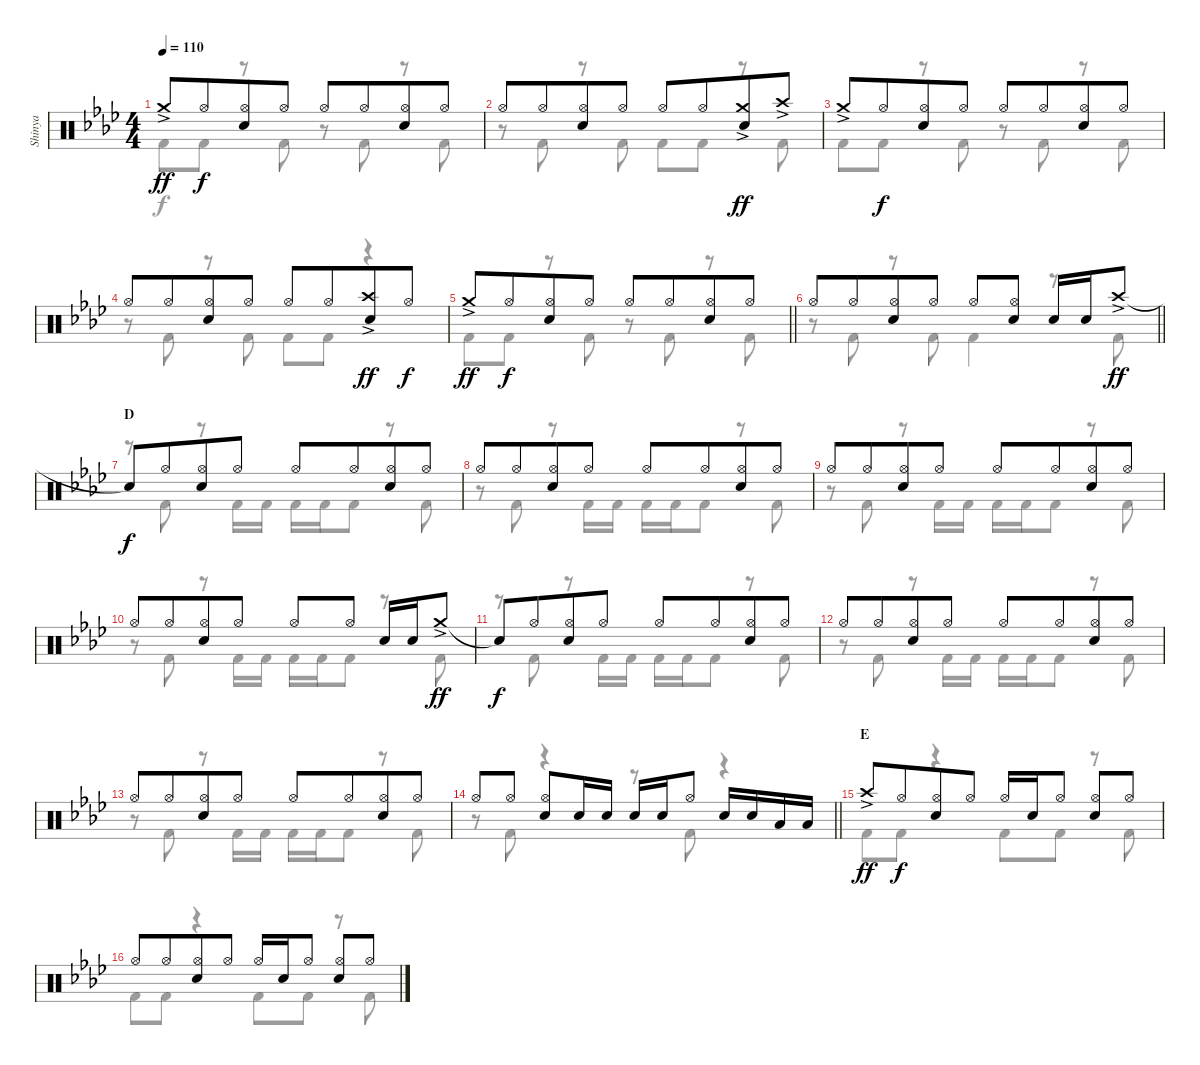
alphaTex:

\track ("Shinya" "Shinya") {instrument percussion}
\staff {score}
\articulation defaults
\voice
\ts (4 4)
\tempo 110
\clef neutral
\ks fminor "Crash medium (hit)"{ac}.8{dy ff} "Hi-Hat (open)".8{dy f beam merge}
("Hi-Hat (open)" "Snare (hit) 2").8 "Hi-Hat (open)".8 "Hi-Hat (open)".8 "Hi-Hat (open)".8{beam merge} ("Hi-Hat (open)" "Snare (hit) 2").8 "Hi-Hat (open)".8 |
"Hi-Hat (open)".8 "Hi-Hat (open)".8{beam merge} ("Hi-Hat (open)" "Snare (hit) 2").8 "Hi-Hat (open)".8 "Hi-Hat (open)".8 "Hi-Hat (open)".8{beam merge} ("Crash medium (hit)"{ac} "Snare (hit) 2").8{dy ff} "Crash high (hit)"{ac}.8 |
"Crash medium (hit)"{ac}.8 "Hi-Hat (open)".8{dy f beam merge} ("Hi-Hat (open)" "Snare (hit) 2").8 "Hi-Hat (open)".8 "Hi-Hat (open)".8 "Hi-Hat (open)".8{beam merge} ("Hi-Hat (open)" "Snare (hit) 2").8 "Hi-Hat (open)".8 |
"Hi-Hat (open)".8 "Hi-Hat (open)".8{beam merge} ("Hi-Hat (open)" "Snare (hit) 2").8 "Hi-Hat (open)".8 "Hi-Hat (open)".8 "Hi-Hat (open)".8{beam merge} ("Crash high (hit)"{ac} "Snare (hit) 2").8{dy ff} "Hi-Hat (open)".8{dy f} |
\barLineRight lightlight "Crash medium (hit)"{ac}.8{dy ff} "Hi-Hat (open)".8{dy f beam merge}
("Hi-Hat (open)" "Snare (hit) 2").8 "Hi-Hat (open)".8 "Hi-Hat (open)".8 "Hi-Hat (open)".8{beam merge} ("Hi-Hat (open)" "Snare (hit) 2").8 "Hi-Hat (open)".8 |
\barLineRight lightlight "Hi-Hat (open)".8 "Hi-Hat (open)".8{beam merge}
("Hi-Hat (open)" "Snare (hit) 2").8 "Hi-Hat (open)".8 "Hi-Hat (open)".8 ("Hi-Hat (open)" "Snare (hit) 2").8 "Snare (hit) 2".16 "Snare (hit) 2".16 "Crash high (hit)"{ac}.8{dy ff} |
\section ("" "D")
"Snare (hit)"{t}.8{dy f} "Hi-Hat (open)".8{beam merge} ("Hi-Hat (open)" "Snare (hit) 2").8 "Hi-Hat (open)".8 "Hi-Hat (open)".8 "Hi-Hat (open)".8{beam merge} ("Hi-Hat (open)" "Snare (hit) 2").8 "Hi-Hat (open)".8 |
"Hi-Hat (open)".8 "Hi-Hat (open)".8{beam merge} ("Hi-Hat (open)" "Snare (hit) 2").8 "Hi-Hat (open)".8 "Hi-Hat (open)".8 "Hi-Hat (open)".8{beam merge} ("Hi-Hat (open)" "Snare (hit) 2").8 "Hi-Hat (open)".8 |
"Hi-Hat (open)".8 "Hi-Hat (open)".8{beam merge} ("Hi-Hat (open)" "Snare (hit) 2").8 "Hi-Hat (open)".8 "Hi-Hat (open)".8 "Hi-Hat (open)".8{beam merge} ("Hi-Hat (open)" "Snare (hit) 2").8 "Hi-Hat (open)".8 |
"Hi-Hat (open)".8 "Hi-Hat (open)".8{beam merge} ("Hi-Hat (open)" "Snare (hit) 2").8 "Hi-Hat (open)".8 "Hi-Hat (open)".8 "Hi-Hat (open)".8 "Snare (hit) 2".16 "Snare (hit) 2".16 "Crash medium (hit)"{ac}.8{dy ff} |
"Snare (hit)"{t}.8{dy f} "Hi-Hat (open)".8{beam merge} ("Hi-Hat (open)" "Snare (hit) 2").8 "Hi-Hat (open)".8 "Hi-Hat (open)".8 "Hi-Hat (open)".8{beam merge} ("Hi-Hat (open)" "Snare (hit) 2").8 "Hi-Hat (open)".8 |
"Hi-Hat (open)".8 "Hi-Hat (open)".8{beam merge} ("Hi-Hat (open)" "Snare (hit) 2").8 "Hi-Hat (open)".8 "Hi-Hat (open)".8 "Hi-Hat (open)".8{beam merge} ("Hi-Hat (open)" "Snare (hit) 2").8 "Hi-Hat (open)".8 |
"Hi-Hat (open)".8 "Hi-Hat (open)".8{beam merge} ("Hi-Hat (open)" "Snare (hit) 2").8 "Hi-Hat (open)".8 "Hi-Hat (open)".8 "Hi-Hat (open)".8{beam merge} ("Hi-Hat (open)" "Snare (hit) 2").8 "Hi-Hat (open)".8 |
\barLineRight lightlight "Hi-Hat (open)".8 "Hi-Hat (open)".8
("Hi-Hat (open)" "Snare (hit) 2").8 "Snare (hit) 2".16 "Snare (hit) 2".16 "Snare (hit) 2".16 "Snare (hit) 2".16 "Hi-Hat (open)".8 "Snare (hit) 2".16 "Snare (hit) 2".16 "Low Tom (hit)".16 "Low Tom (hit)".16 |
\section ("" "E")
"Crash high (hit)"{ac}.8{dy ff} "Hi-Hat (open)".8{dy f beam merge} ("Hi-Hat (open)" "Snare (hit) 2").8 "Hi-Hat (open)".8 "Hi-Hat (open)".16 "Snare (hit) 2".16 "Hi-Hat (open)".8 ("Hi-Hat (open)" "Snare (hit) 2").8 "Hi-Hat (open)".8 |
"Hi-Hat (open)".8 "Hi-Hat (open)".8{beam merge} ("Hi-Hat (open)" "Snare (hit) 2").8 "Hi-Hat (open)".8 "Hi-Hat (open)".16 "Snare (hit) 2".16 "Hi-Hat (open)".8 ("Hi-Hat (open)" "Snare (hit) 2").8 "Hi-Hat (open)".8
\voice
\clef neutral
\ottava regular
\simile none
\ks fminor "Kick (hit) 2".8{dy f} "Kick (hit) 2".8
r.8 "Kick (hit) 2".8 r.8 "Kick (hit) 2".8 r.8 "Kick (hit) 2".8 |
r.8 "Kick (hit) 2".8 r.8 "Kick (hit) 2".8 "Kick (hit) 2".8 "Kick (hit) 2".8 r.8 "Kick (hit) 2".8 |
"Kick (hit) 2".8 "Kick (hit) 2".8 r.8 "Kick (hit) 2".8 r.8 "Kick (hit) 2".8 r.8 "Kick (hit) 2".8 |
r.8 "Kick (hit) 2".8 r.8 "Kick (hit) 2".8 "Kick (hit) 2".8 "Kick (hit) 2".8 r.4 |
\barLineRight lightlight "Kick (hit) 2".8 "Kick (hit) 2".8
r.8 "Kick (hit) 2".8 r.8 "Kick (hit) 2".8 r.8 "Kick (hit) 2".8 |
\barLineRight lightlight
r.8 "Kick (hit) 2".8 r.8 "Kick (hit) 2".8 "Kick (hit) 2".4 r.8 "Kick (hit) 2".8 |
r.8 "Kick (hit) 2".8 r.8 "Kick (hit) 2".16 "Kick (hit) 2".16 "Kick (hit) 2".16 "Kick (hit) 2".16 "Kick (hit) 2".8 r.8 "Kick (hit) 2".8 |
r.8 "Kick (hit) 2".8 r.8 "Kick (hit) 2".16 "Kick (hit) 2".16 "Kick (hit) 2".16 "Kick (hit) 2".16 "Kick (hit) 2".8 r.8 "Kick (hit) 2".8 |
r.8 "Kick (hit) 2".8 r.8 "Kick (hit) 2".16 "Kick (hit) 2".16 "Kick (hit) 2".16 "Kick (hit) 2".16 "Kick (hit) 2".8 r.8 "Kick (hit) 2".8 |
r.8 "Kick (hit) 2".8 r.8 "Kick (hit) 2".16 "Kick (hit) 2".16 "Kick (hit) 2".16 "Kick (hit) 2".16 "Kick (hit) 2".8 r.8 "Kick (hit) 2".8 |
r.8 "Kick (hit) 2".8 r.8 "Kick (hit) 2".16 "Kick (hit) 2".16 "Kick (hit) 2".16 "Kick (hit) 2".16 "Kick (hit) 2".8 r.8 "Kick (hit) 2".8 |
r.8 "Kick (hit) 2".8 r.8 "Kick (hit) 2".16 "Kick (hit) 2".16 "Kick (hit) 2".16 "Kick (hit) 2".16 "Kick (hit) 2".8 r.8 "Kick (hit) 2".8 |
r.8 "Kick (hit) 2".8 r.8 "Kick (hit) 2".16 "Kick (hit) 2".16 "Kick (hit) 2".16 "Kick (hit) 2".16 "Kick (hit) 2".8 r.8 "Kick (hit) 2".8 |
\barLineRight lightlight
r.8 "Kick (hit) 2".8 r.4 r.8 "Kick (hit) 2".8 r.4 |
"Kick (hit) 2".8 "Kick (hit) 2".8 r.4 "Kick (hit) 2".8 "Kick (hit) 2".8 r.8 "Kick (hit) 2".8 |
"Kick (hit) 2".8 "Kick (hit) 2".8 r.4 "Kick (hit) 2".8 "Kick (hit) 2".8 r.8 "Kick (hit) 2".8
